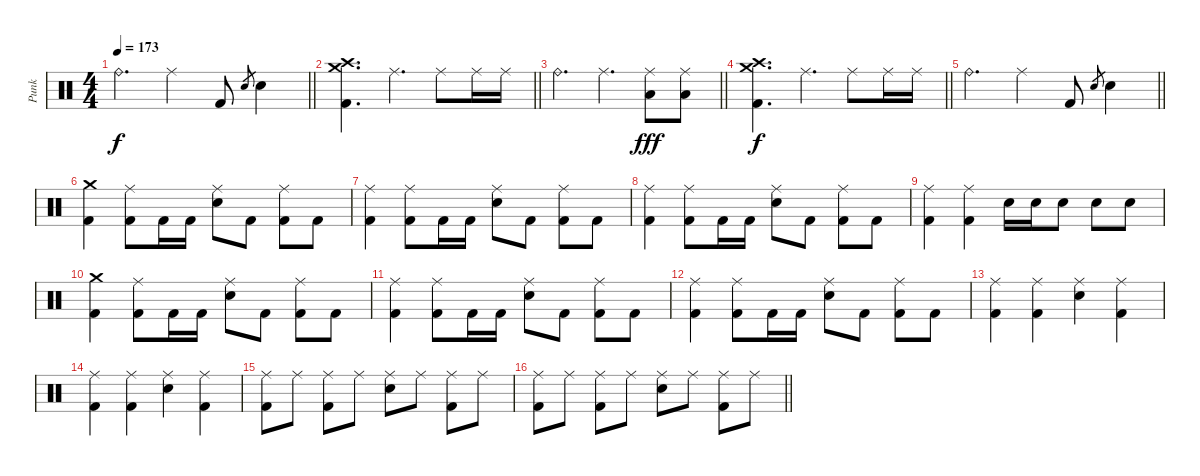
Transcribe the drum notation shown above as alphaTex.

\track ("Punk" "Punk") {instrument percussion}
\staff {score}
\articulation defaults
\ts (4 4)
\tempo 173
\clef neutral
\barLineRight lightlight
\ks c "Ride (bell)".4{d dy f} "Ride (middle)".4 "Kick (hit) 2".8 "Electric Snare (hit)".8{gr} "Electric Snare (hit)".4
|
\barLineRight lightlight
("Crash medium (hit)" "Crash high (hit)" "Kick (hit) 2").4{d} "Ride (middle)".4{d} "Ride (middle)".8 "Ride (middle)".16 "Ride (middle)".16 |
\barLineRight lightlight "Ride (bell)".4{d} "Ride (middle)".4{d}
("Ride (middle)" "Low Floor Tom (hit)").8{dy fff} ("Ride (middle)" "Low Floor Tom (hit)").8 |
\barLineRight lightlight
("Crash medium (hit)" "Crash high (hit)" "Kick (hit) 2").4{d dy f} "Ride (middle)".4{d} "Ride (middle)".8 "Ride (middle)".16 "Ride (middle)".16 |
\barLineRight lightlight "Ride (bell)".4{d} "Ride (middle)".4 "Kick (hit) 2".8 "Electric Snare (hit)".8{gr} "Electric Snare (hit)".4
|
("Crash medium (hit)" "Kick (hit) 2").4 ("Ride (middle)" "Kick (hit) 2").8 "Kick (hit) 2".16 "Kick (hit) 2".16 ("Ride (middle)" "Electric Snare (hit)").8 "Kick (hit) 2".8 ("Ride (middle)" "Kick (hit) 2").8 "Kick (hit) 2".8 |
("Ride (middle)" "Kick (hit) 2").4 ("Ride (middle)" "Kick (hit) 2").8 "Kick (hit) 2".16 "Kick (hit) 2".16 ("Ride (middle)" "Electric Snare (hit)").8 "Kick (hit) 2".8 ("Ride (middle)" "Kick (hit) 2").8 "Kick (hit) 2".8 |
("Ride (middle)" "Kick (hit) 2").4 ("Ride (middle)" "Kick (hit) 2").8 "Kick (hit) 2".16 "Kick (hit) 2".16 ("Ride (middle)" "Electric Snare (hit)").8 "Kick (hit) 2".8 ("Ride (middle)" "Kick (hit) 2").8 "Kick (hit) 2".8 |
("Ride (middle)" "Kick (hit) 2").4 ("Ride (middle)" "Kick (hit) 2").4 "Electric Snare (hit)".16 "Electric Snare (hit)".16 "Electric Snare (hit)".8 "Electric Snare (hit)".8 "Electric Snare (hit)".8 |
("Crash medium (hit)" "Kick (hit) 2").4 ("Ride (middle)" "Kick (hit) 2").8 "Kick (hit) 2".16 "Kick (hit) 2".16 ("Ride (middle)" "Electric Snare (hit)").8 "Kick (hit) 2".8 ("Ride (middle)" "Kick (hit) 2").8 "Kick (hit) 2".8 |
("Ride (middle)" "Kick (hit) 2").4 ("Ride (middle)" "Kick (hit) 2").8 "Kick (hit) 2".16 "Kick (hit) 2".16 ("Ride (middle)" "Electric Snare (hit)").8 "Kick (hit) 2".8 ("Ride (middle)" "Kick (hit) 2").8 "Kick (hit) 2".8 |
("Ride (middle)" "Kick (hit) 2").4 ("Ride (middle)" "Kick (hit) 2").8 "Kick (hit) 2".16 "Kick (hit) 2".16 ("Ride (middle)" "Electric Snare (hit)").8 "Kick (hit) 2".8 ("Ride (middle)" "Kick (hit) 2").8 "Kick (hit) 2".8 |
("Ride (middle)" "Kick (hit) 2").4 ("Ride (middle)" "Kick (hit) 2").4 ("Ride (middle)" "Electric Snare (hit)").4 ("Ride (middle)" "Kick (hit) 2").4 |
("Ride (middle)" "Kick (hit) 2").4 ("Ride (middle)" "Kick (hit) 2").4 ("Ride (middle)" "Electric Snare (hit)").4 ("Ride (middle)" "Kick (hit) 2").4 |
("Ride (middle)" "Kick (hit) 2").8 "Ride (middle)".8 ("Ride (middle)" "Kick (hit) 2").8 "Ride (middle)".8 ("Ride (middle)" "Electric Snare (hit)").8 "Ride (middle)".8 ("Ride (middle)" "Kick (hit) 2").8 "Ride (middle)".8 |
\barLineRight lightlight
("Ride (middle)" "Kick (hit) 2").8 "Ride (middle)".8 ("Ride (middle)" "Kick (hit) 2").8 "Ride (middle)".8 ("Ride (middle)" "Electric Snare (hit)").8 "Ride (middle)".8 ("Ride (middle)" "Kick (hit) 2").8 "Ride (middle)".8
